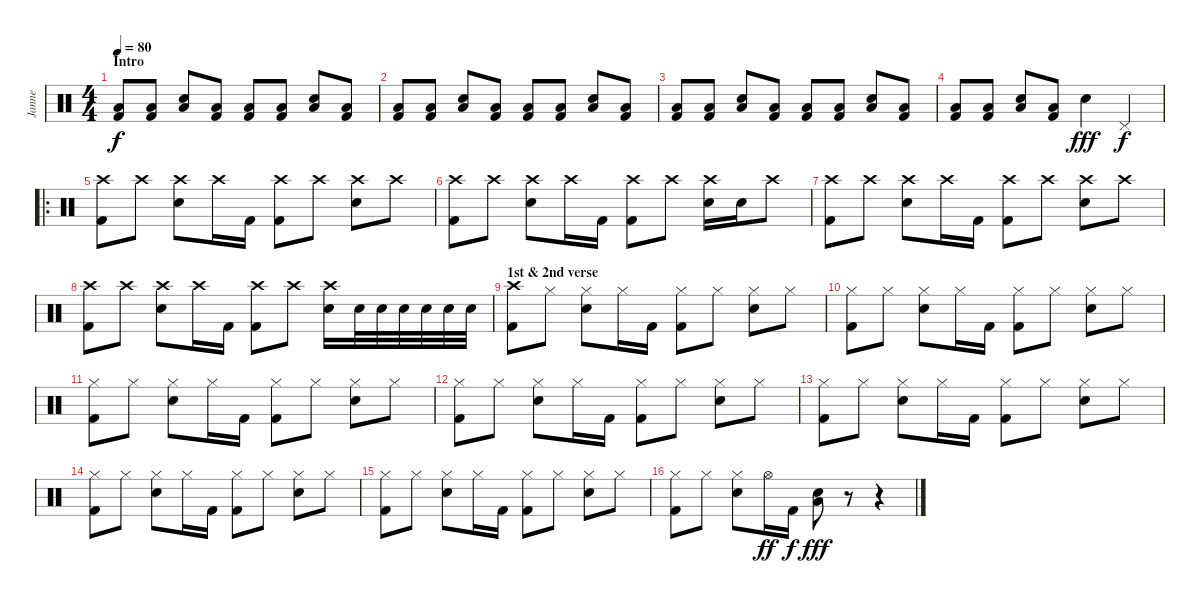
\track ("Janne" "Janne") {instrument percussion}
\staff {score}
\articulation defaults
\ts (4 4)
\section ("" "Intro")
\tempo 80
\clef neutral
\ks c
("Low Floor Tom (hit)" "Kick (hit) 2").8{dy f} ("Low Floor Tom (hit)" "Kick (hit) 2").8 ("Low Floor Tom (hit)" "Electric Snare (hit)").8 ("Low Floor Tom (hit)" "Kick (hit) 2").8 ("Low Floor Tom (hit)" "Kick (hit) 2").8 ("Low Floor Tom (hit)" "Kick (hit) 2").8 ("Low Floor Tom (hit)" "Electric Snare (hit)").8 ("Low Floor Tom (hit)" "Kick (hit) 2").8 |
("Low Floor Tom (hit)" "Kick (hit) 2").8 ("Low Floor Tom (hit)" "Kick (hit) 2").8 ("Low Floor Tom (hit)" "Electric Snare (hit)").8 ("Low Floor Tom (hit)" "Kick (hit) 2").8 ("Low Floor Tom (hit)" "Kick (hit) 2").8 ("Low Floor Tom (hit)" "Kick (hit) 2").8 ("Low Floor Tom (hit)" "Electric Snare (hit)").8 ("Low Floor Tom (hit)" "Kick (hit) 2").8 |
("Low Floor Tom (hit)" "Kick (hit) 2").8 ("Low Floor Tom (hit)" "Kick (hit) 2").8 ("Low Floor Tom (hit)" "Electric Snare (hit)").8 ("Low Floor Tom (hit)" "Kick (hit) 2").8 ("Low Floor Tom (hit)" "Kick (hit) 2").8 ("Low Floor Tom (hit)" "Kick (hit) 2").8 ("Low Floor Tom (hit)" "Electric Snare (hit)").8 ("Low Floor Tom (hit)" "Kick (hit) 2").8 |
("Low Floor Tom (hit)" "Kick (hit) 2").8 ("Low Floor Tom (hit)" "Kick (hit) 2").8 ("Low Floor Tom (hit)" "Electric Snare (hit)").8 ("Low Floor Tom (hit)" "Kick (hit) 2").8 "Electric Snare (hit)".4{dy fff} "Pedal Hi-Hat (hit)".4{dy f} |
\ro
("Crash high (hit)" "Kick (hit) 2").8 "Crash high (hit)".8 ("Crash high (hit)" "Electric Snare (hit)").8 "Crash high (hit)".16 "Kick (hit) 2".16 ("Crash high (hit)" "Kick (hit) 2").8 "Crash high (hit)".8 ("Crash high (hit)" "Electric Snare (hit)").8 "Crash high (hit)".8 |
("Crash high (hit)" "Kick (hit) 2").8 "Crash high (hit)".8 ("Crash high (hit)" "Electric Snare (hit)").8 "Crash high (hit)".16 "Kick (hit) 2".16 ("Crash high (hit)" "Kick (hit) 2").8 "Crash high (hit)".8 ("Crash high (hit)" "Electric Snare (hit)").16 "Electric Snare (hit)".16 "Crash high (hit)".8 |
("Crash high (hit)" "Kick (hit) 2").8 "Crash high (hit)".8 ("Crash high (hit)" "Electric Snare (hit)").8 "Crash high (hit)".16 "Kick (hit) 2".16 ("Crash high (hit)" "Kick (hit) 2").8 "Crash high (hit)".8 ("Crash high (hit)" "Electric Snare (hit)").8 "Crash high (hit)".8 |
("Crash high (hit)" "Kick (hit) 2").8 "Crash high (hit)".8 ("Crash high (hit)" "Electric Snare (hit)").8 "Crash high (hit)".16 "Kick (hit) 2".16 ("Crash high (hit)" "Kick (hit) 2").8 "Crash high (hit)".8 ("Crash high (hit)" "Electric Snare (hit)").16 "Electric Snare (hit)".32 "Electric Snare (hit)".32 "Electric Snare (hit)".32 "Electric Snare (hit)".32 "Electric Snare (hit)".32 "Electric Snare (hit)".32 |
\section ("" "1st & 2nd verse")
("Crash high (hit)" "Kick (hit) 2").8 "Hi-Hat (closed)".8 ("Hi-Hat (closed)" "Electric Snare (hit)").8 "Hi-Hat (closed)".16 "Kick (hit) 2".16 ("Hi-Hat (closed)" "Kick (hit) 2").8 "Hi-Hat (closed)".8 ("Hi-Hat (closed)" "Electric Snare (hit)").8 "Hi-Hat (closed)".8 |
("Hi-Hat (closed)" "Kick (hit) 2").8 "Hi-Hat (closed)".8 ("Hi-Hat (closed)" "Electric Snare (hit)").8 "Hi-Hat (closed)".16 "Kick (hit) 2".16 ("Hi-Hat (closed)" "Kick (hit) 2").8 "Hi-Hat (closed)".8 ("Hi-Hat (closed)" "Electric Snare (hit)").8 "Hi-Hat (closed)".8 |
("Hi-Hat (closed)" "Kick (hit) 2").8 "Hi-Hat (closed)".8 ("Hi-Hat (closed)" "Electric Snare (hit)").8 "Hi-Hat (closed)".16 "Kick (hit) 2".16 ("Hi-Hat (closed)" "Kick (hit) 2").8 "Hi-Hat (closed)".8 ("Hi-Hat (closed)" "Electric Snare (hit)").8 "Hi-Hat (closed)".8 |
("Hi-Hat (closed)" "Kick (hit) 2").8 "Hi-Hat (closed)".8 ("Hi-Hat (closed)" "Electric Snare (hit)").8 "Hi-Hat (closed)".16 "Kick (hit) 2".16 ("Hi-Hat (closed)" "Kick (hit) 2").8 "Hi-Hat (closed)".8 ("Hi-Hat (closed)" "Electric Snare (hit)").8 "Hi-Hat (closed)".8 |
("Hi-Hat (closed)" "Kick (hit) 2").8 "Hi-Hat (closed)".8 ("Hi-Hat (closed)" "Electric Snare (hit)").8 "Hi-Hat (closed)".16 "Kick (hit) 2".16 ("Hi-Hat (closed)" "Kick (hit) 2").8 "Hi-Hat (closed)".8 ("Hi-Hat (closed)" "Electric Snare (hit)").8 "Hi-Hat (closed)".8 |
("Hi-Hat (closed)" "Kick (hit) 2").8 "Hi-Hat (closed)".8 ("Hi-Hat (closed)" "Electric Snare (hit)").8 "Hi-Hat (closed)".16 "Kick (hit) 2".16 ("Hi-Hat (closed)" "Kick (hit) 2").8 "Hi-Hat (closed)".8 ("Hi-Hat (closed)" "Electric Snare (hit)").8 "Hi-Hat (closed)".8 |
("Hi-Hat (closed)" "Kick (hit) 2").8 "Hi-Hat (closed)".8 ("Hi-Hat (closed)" "Electric Snare (hit)").8 "Hi-Hat (closed)".16 "Kick (hit) 2".16 ("Hi-Hat (closed)" "Kick (hit) 2").8 "Hi-Hat (closed)".8 ("Hi-Hat (closed)" "Electric Snare (hit)").8 "Hi-Hat (closed)".8 |
("Hi-Hat (closed)" "Kick (hit) 2").8 "Hi-Hat (closed)".8 ("Hi-Hat (closed)" "Electric Snare (hit)").8 "Hi-Hat (open)".16{dy ff} "Kick (hit) 2".16{dy f} ("Low Floor Tom (hit)" "Electric Snare (hit)").8{dy fff} r.8 r.4
